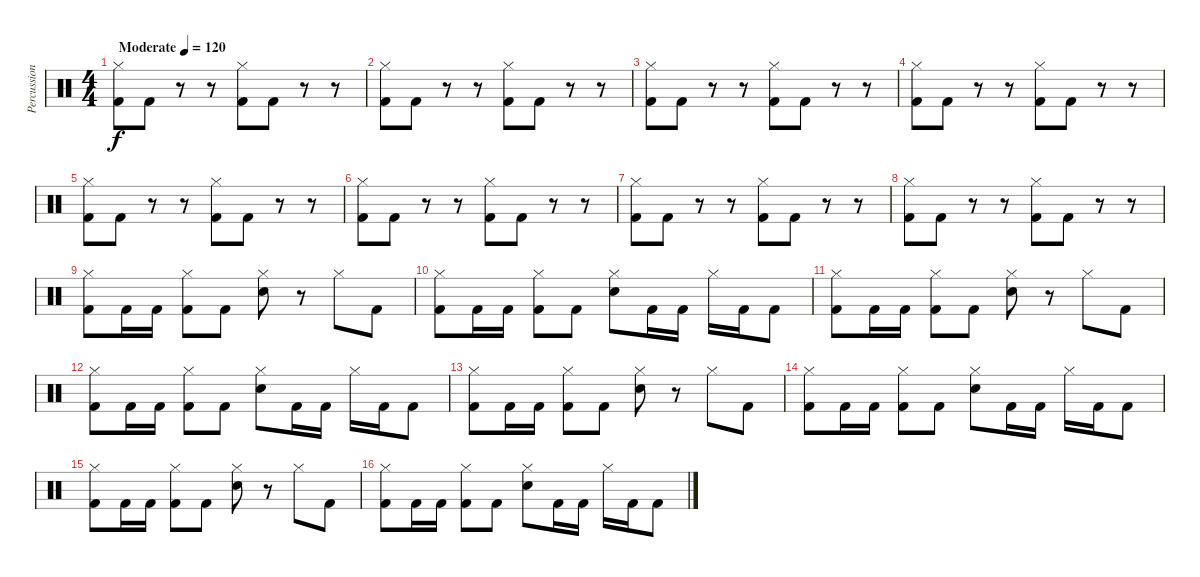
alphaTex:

\track ("Percussions" "Percussion") {instrument percussion}
\staff {score}
\articulation defaults
\ts (4 4)
\tempo (120 "Moderate")
\clef neutral
\ks c
("Hi-Hat (closed)" "Kick (hit) 2").8{dy f} "Kick (hit) 2".8 r.8 r.8 ("Hi-Hat (closed)" "Kick (hit) 2").8 "Kick (hit) 2".8 r.8 r.8 |
("Hi-Hat (closed)" "Kick (hit) 2").8 "Kick (hit) 2".8 r.8 r.8 ("Hi-Hat (closed)" "Kick (hit) 2").8 "Kick (hit) 2".8 r.8 r.8 |
("Hi-Hat (closed)" "Kick (hit) 2").8 "Kick (hit) 2".8 r.8 r.8 ("Hi-Hat (closed)" "Kick (hit) 2").8 "Kick (hit) 2".8 r.8 r.8 |
("Hi-Hat (closed)" "Kick (hit) 2").8 "Kick (hit) 2".8 r.8 r.8 ("Hi-Hat (closed)" "Kick (hit) 2").8 "Kick (hit) 2".8 r.8 r.8 |
("Hi-Hat (closed)" "Kick (hit) 2").8 "Kick (hit) 2".8 r.8 r.8 ("Hi-Hat (closed)" "Kick (hit) 2").8 "Kick (hit) 2".8 r.8 r.8 |
("Hi-Hat (closed)" "Kick (hit) 2").8 "Kick (hit) 2".8 r.8 r.8 ("Hi-Hat (closed)" "Kick (hit) 2").8 "Kick (hit) 2".8 r.8 r.8 |
("Hi-Hat (closed)" "Kick (hit) 2").8 "Kick (hit) 2".8 r.8 r.8 ("Hi-Hat (closed)" "Kick (hit) 2").8 "Kick (hit) 2".8 r.8 r.8 |
("Hi-Hat (closed)" "Kick (hit) 2").8 "Kick (hit) 2".8 r.8 r.8 ("Hi-Hat (closed)" "Kick (hit) 2").8 "Kick (hit) 2".8 r.8 r.8 |
("Hi-Hat (closed)" "Kick (hit) 2").8 "Kick (hit) 2".16 "Kick (hit) 2".16 ("Hi-Hat (closed)" "Kick (hit) 2").8 "Kick (hit) 2".8 ("Hi-Hat (closed)" "Snare (hit) 2").8 r.8 "Hi-Hat (closed)".8 "Kick (hit) 2".8 |
("Hi-Hat (closed)" "Kick (hit) 2").8 "Kick (hit) 2".16 "Kick (hit) 2".16 ("Hi-Hat (closed)" "Kick (hit) 2").8 "Kick (hit) 2".8 ("Hi-Hat (closed)" "Snare (hit) 2").8 "Kick (hit) 2".16 "Kick (hit) 2".16 "Hi-Hat (closed)".16 "Kick (hit) 2".16 "Kick (hit) 2".8 |
("Hi-Hat (closed)" "Kick (hit) 2").8 "Kick (hit) 2".16 "Kick (hit) 2".16 ("Hi-Hat (closed)" "Kick (hit) 2").8 "Kick (hit) 2".8 ("Hi-Hat (closed)" "Snare (hit) 2").8 r.8 "Hi-Hat (closed)".8 "Kick (hit) 2".8 |
("Hi-Hat (closed)" "Kick (hit) 2").8 "Kick (hit) 2".16 "Kick (hit) 2".16 ("Hi-Hat (closed)" "Kick (hit) 2").8 "Kick (hit) 2".8 ("Hi-Hat (closed)" "Snare (hit) 2").8 "Kick (hit) 2".16 "Kick (hit) 2".16 "Hi-Hat (closed)".16 "Kick (hit) 2".16 "Kick (hit) 2".8 |
("Hi-Hat (closed)" "Kick (hit) 2").8 "Kick (hit) 2".16 "Kick (hit) 2".16 ("Hi-Hat (closed)" "Kick (hit) 2").8 "Kick (hit) 2".8 ("Hi-Hat (closed)" "Snare (hit) 2").8 r.8 "Hi-Hat (closed)".8 "Kick (hit) 2".8 |
("Hi-Hat (closed)" "Kick (hit) 2").8 "Kick (hit) 2".16 "Kick (hit) 2".16 ("Hi-Hat (closed)" "Kick (hit) 2").8 "Kick (hit) 2".8 ("Hi-Hat (closed)" "Snare (hit) 2").8 "Kick (hit) 2".16 "Kick (hit) 2".16 "Hi-Hat (closed)".16 "Kick (hit) 2".16 "Kick (hit) 2".8 |
("Hi-Hat (closed)" "Kick (hit) 2").8 "Kick (hit) 2".16 "Kick (hit) 2".16 ("Hi-Hat (closed)" "Kick (hit) 2").8 "Kick (hit) 2".8 ("Hi-Hat (closed)" "Snare (hit) 2").8 r.8 "Hi-Hat (closed)".8 "Kick (hit) 2".8 |
("Hi-Hat (closed)" "Kick (hit) 2").8 "Kick (hit) 2".16 "Kick (hit) 2".16 ("Hi-Hat (closed)" "Kick (hit) 2").8 "Kick (hit) 2".8 ("Hi-Hat (closed)" "Snare (hit) 2").8 "Kick (hit) 2".16 "Kick (hit) 2".16 "Hi-Hat (closed)".16 "Kick (hit) 2".16 "Kick (hit) 2".8
